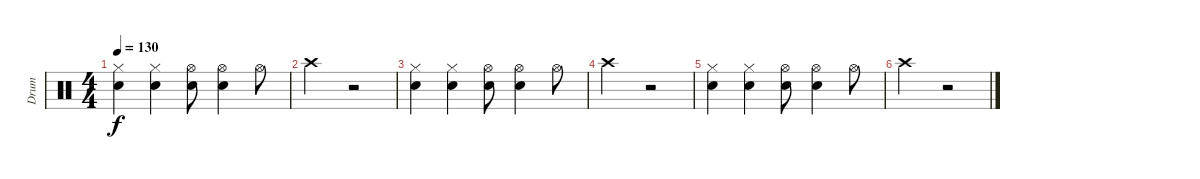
\track ("Drum" "Drum") {instrument percussion}
\staff {score}
\articulation defaults
\ts (4 4)
\tempo 130
\clef neutral
\ks c
("Hi-Hat (closed)" "Snare (hit) 2").4{dy f} ("Snare (hit) 2" "Hi-Hat (closed)").4 ("Snare (hit) 2" "Hi-Hat (open)").8 ("Snare (hit) 2" "Hi-Hat (open)").4 "Hi-Hat (open)".8 |
"Crash high (hit)".2 r.2 |
("Hi-Hat (closed)" "Snare (hit) 2").4 ("Snare (hit) 2" "Hi-Hat (closed)").4 ("Snare (hit) 2" "Hi-Hat (open)").8 ("Snare (hit) 2" "Hi-Hat (open)").4 "Hi-Hat (open)".8 |
"Crash high (hit)".2 r.2 |
("Hi-Hat (closed)" "Snare (hit) 2").4 ("Snare (hit) 2" "Hi-Hat (closed)").4 ("Snare (hit) 2" "Hi-Hat (open)").8 ("Snare (hit) 2" "Hi-Hat (open)").4 "Hi-Hat (open)".8 |
"Crash high (hit)".2 r.2
